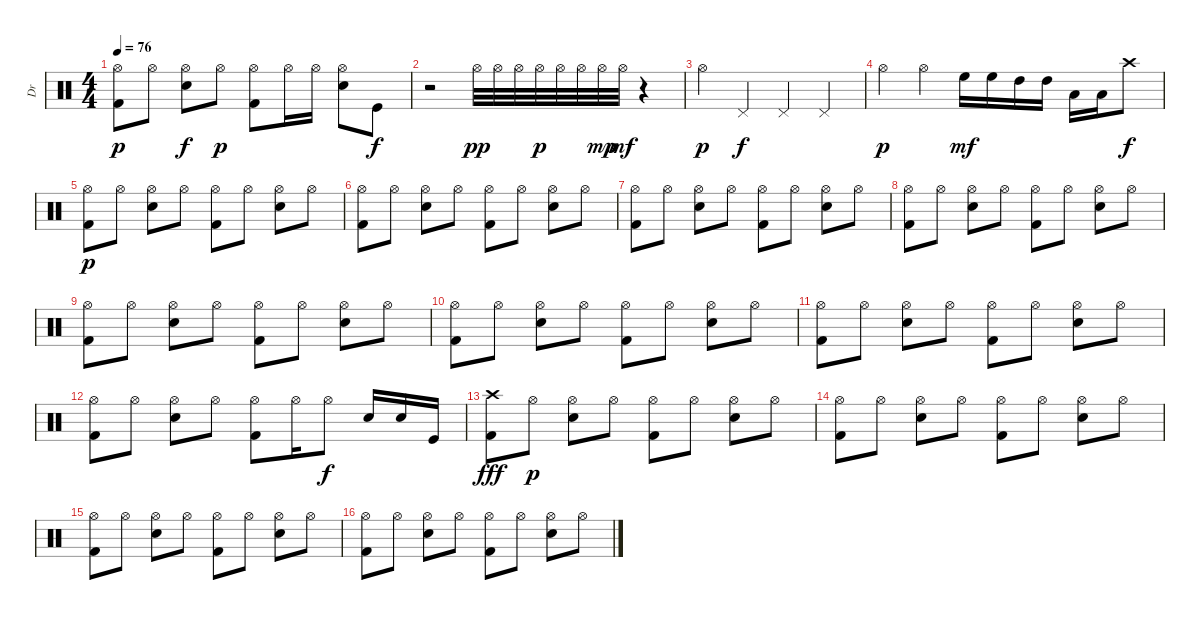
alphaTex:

\track ("Dr" "Dr") {instrument percussion}
\staff {score}
\articulation defaults
\ts (4 4)
\tempo 76
\clef neutral
\ks c
("Kick (hit) 2" "Hi-Hat (open)").8{dy p} "Hi-Hat (open)".8 ("Hi-Hat (open)" "Snare (hit) 2").8{dy f} "Hi-Hat (open)".8{dy p} ("Kick (hit) 2" "Hi-Hat (open)").8 "Hi-Hat (open)".16 "Hi-Hat (open)".16 ("Snare (hit) 2" "Hi-Hat (open)").8 "Kick (hit)".8{dy f} |
r.2 "Hi-Hat (open)".32{dy pp} "Hi-Hat (open)".32 "Hi-Hat (open)".32 "Hi-Hat (open)".32{dy p} "Hi-Hat (open)".32 "Hi-Hat (open)".32 "Hi-Hat (open)".32{dy mp} "Hi-Hat (open)".32{dy mf} r.4 |
"Hi-Hat (open)".4{dy p} "Pedal Hi-Hat (hit)".4{dy f} "Pedal Hi-Hat (hit)".4 "Pedal Hi-Hat (hit)".4 |
"Hi-Hat (open)".4{dy p} "Hi-Hat (open)".4 "High Floor Tom (hit)".16{dy mf} "High Floor Tom (hit)".16 "High Tom (hit)".16 "High Tom (hit)".16 "Low Tom (hit)".16 "Low Tom (hit)".16 "Crash high (hit)".8{dy f} |
("Kick (hit) 2" "Hi-Hat (open)").8{dy p} "Hi-Hat (open)".8 ("Hi-Hat (open)" "Snare (hit) 2").8 "Hi-Hat (open)".8 ("Kick (hit) 2" "Hi-Hat (open)").8 "Hi-Hat (open)".8 ("Snare (hit) 2" "Hi-Hat (open)").8 "Hi-Hat (open)".8 |
("Kick (hit) 2" "Hi-Hat (open)").8 "Hi-Hat (open)".8 ("Hi-Hat (open)" "Snare (hit) 2").8 "Hi-Hat (open)".8 ("Kick (hit) 2" "Hi-Hat (open)").8 "Hi-Hat (open)".8 ("Snare (hit) 2" "Hi-Hat (open)").8 "Hi-Hat (open)".8 |
("Kick (hit) 2" "Hi-Hat (open)").8 "Hi-Hat (open)".8 ("Hi-Hat (open)" "Snare (hit) 2").8 "Hi-Hat (open)".8 ("Kick (hit) 2" "Hi-Hat (open)").8 "Hi-Hat (open)".8 ("Snare (hit) 2" "Hi-Hat (open)").8 "Hi-Hat (open)".8 |
("Kick (hit) 2" "Hi-Hat (open)").8 "Hi-Hat (open)".8 ("Hi-Hat (open)" "Snare (hit) 2").8 "Hi-Hat (open)".8 ("Kick (hit) 2" "Hi-Hat (open)").8 "Hi-Hat (open)".8 ("Snare (hit) 2" "Hi-Hat (open)").8 "Hi-Hat (open)".8 |
("Kick (hit) 2" "Hi-Hat (open)").8 "Hi-Hat (open)".8 ("Hi-Hat (open)" "Snare (hit) 2").8 "Hi-Hat (open)".8 ("Kick (hit) 2" "Hi-Hat (open)").8 "Hi-Hat (open)".8 ("Snare (hit) 2" "Hi-Hat (open)").8 "Hi-Hat (open)".8 |
("Kick (hit) 2" "Hi-Hat (open)").8 "Hi-Hat (open)".8 ("Hi-Hat (open)" "Snare (hit) 2").8 "Hi-Hat (open)".8 ("Kick (hit) 2" "Hi-Hat (open)").8 "Hi-Hat (open)".8 ("Snare (hit) 2" "Hi-Hat (open)").8 "Hi-Hat (open)".8 |
("Kick (hit) 2" "Hi-Hat (open)").8 "Hi-Hat (open)".8 ("Hi-Hat (open)" "Snare (hit) 2").8 "Hi-Hat (open)".8 ("Kick (hit) 2" "Hi-Hat (open)").8 "Hi-Hat (open)".8 ("Snare (hit) 2" "Hi-Hat (open)").8 "Hi-Hat (open)".8 |
("Kick (hit) 2" "Hi-Hat (open)").8 "Hi-Hat (open)".8 ("Hi-Hat (open)" "Snare (hit) 2").8 "Hi-Hat (open)".8 ("Kick (hit) 2" "Hi-Hat (open)").8 "Hi-Hat (open)".16 "Hi-Hat (open)".8{dy f} "Snare (hit) 2".16 "Snare (hit) 2".16 "Kick (hit)".16 |
("Kick (hit) 2" "Crash high (hit)").8{dy fff} "Hi-Hat (open)".8{dy p} ("Hi-Hat (open)" "Snare (hit) 2").8 "Hi-Hat (open)".8 ("Kick (hit) 2" "Hi-Hat (open)").8 "Hi-Hat (open)".8 ("Snare (hit) 2" "Hi-Hat (open)").8 "Hi-Hat (open)".8 |
("Kick (hit) 2" "Hi-Hat (open)").8 "Hi-Hat (open)".8 ("Hi-Hat (open)" "Snare (hit) 2").8 "Hi-Hat (open)".8 ("Kick (hit) 2" "Hi-Hat (open)").8 "Hi-Hat (open)".8 ("Snare (hit) 2" "Hi-Hat (open)").8 "Hi-Hat (open)".8 |
("Kick (hit) 2" "Hi-Hat (open)").8 "Hi-Hat (open)".8 ("Hi-Hat (open)" "Snare (hit) 2").8 "Hi-Hat (open)".8 ("Kick (hit) 2" "Hi-Hat (open)").8 "Hi-Hat (open)".8 ("Snare (hit) 2" "Hi-Hat (open)").8 "Hi-Hat (open)".8 |
("Kick (hit) 2" "Hi-Hat (open)").8 "Hi-Hat (open)".8 ("Hi-Hat (open)" "Snare (hit) 2").8 "Hi-Hat (open)".8 ("Kick (hit) 2" "Hi-Hat (open)").8 "Hi-Hat (open)".8 ("Snare (hit) 2" "Hi-Hat (open)").8 "Hi-Hat (open)".8
